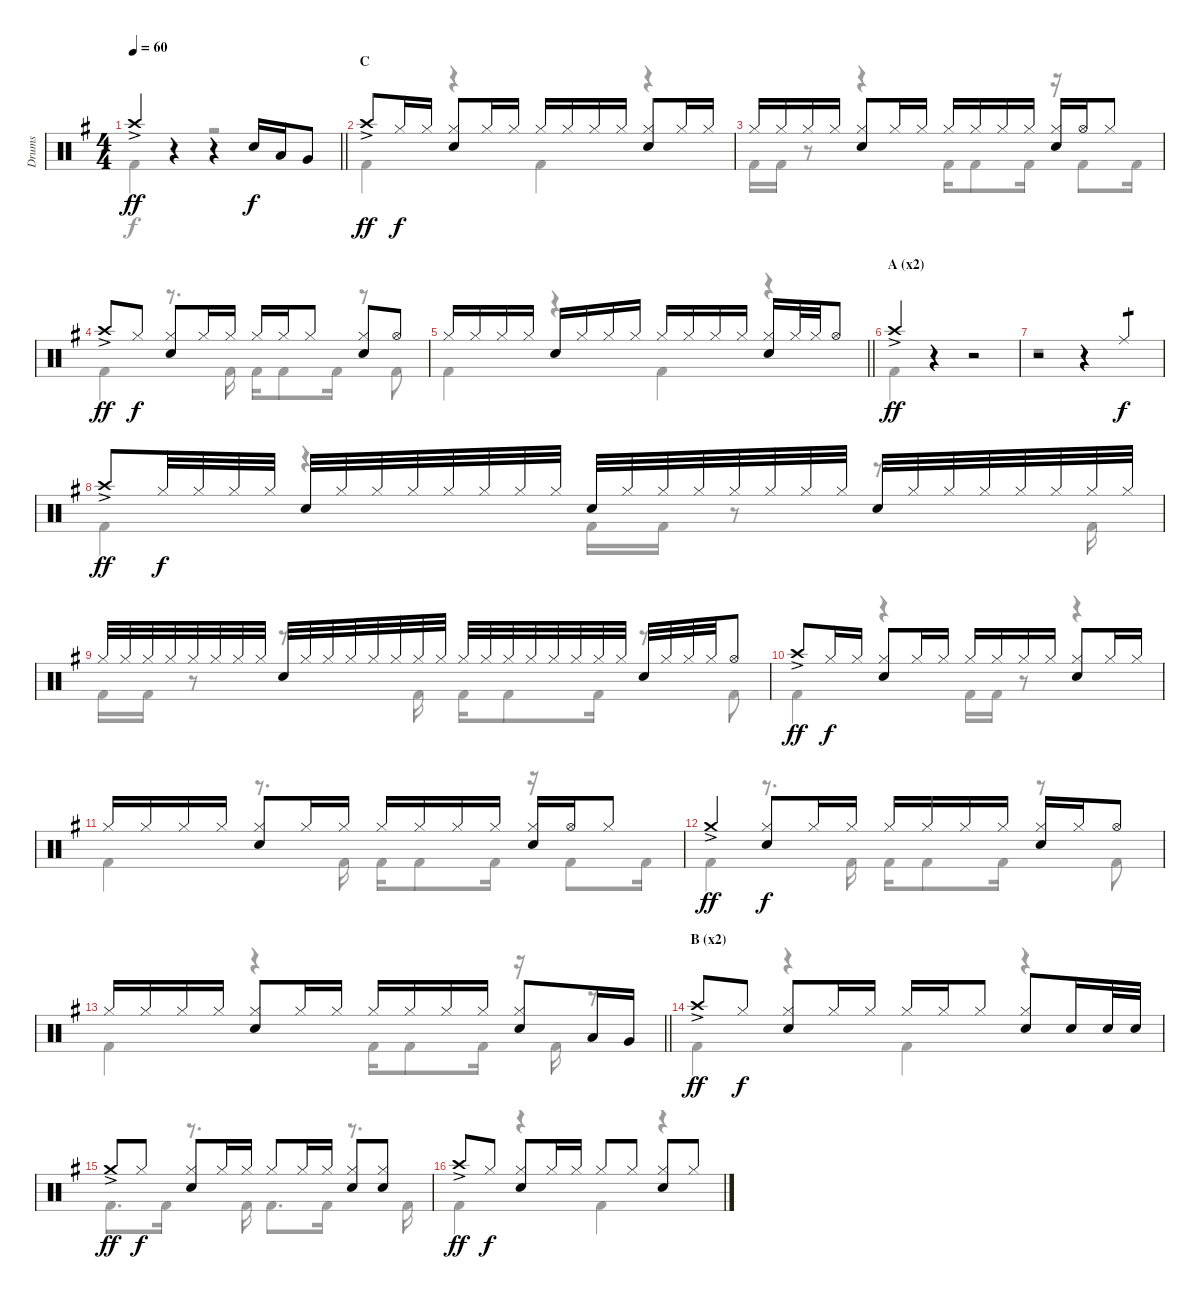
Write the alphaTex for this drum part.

\track ("Drums" "Drums") {instrument percussion}
\staff {score}
\articulation defaults
\voice
\ts (4 4)
\tempo 60
\clef neutral
\barLineRight lightlight
\ks g "Crash high (hit)"{ac}.4{dy ff}
r.4 r.4 "Snare (hit) 2".16{dy f} "Low Tom (hit)".16 "Very Low Tom (hit)".8 |
\section ("" "C")
"Crash high (hit)"{ac}.8{dy ff} "Hi-Hat (closed)".16{dy f} "Hi-Hat (closed)".16 ("Hi-Hat (closed)" "Snare (hit) 2").8 "Hi-Hat (closed)".16 "Hi-Hat (closed)".16 "Hi-Hat (closed)".16 "Hi-Hat (closed)".16 "Hi-Hat (closed)".16 "Hi-Hat (closed)".16 ("Hi-Hat (closed)" "Snare (hit) 2").8 "Hi-Hat (closed)".16 "Hi-Hat (closed)".16 |
"Hi-Hat (closed)".16 "Hi-Hat (closed)".16 "Hi-Hat (closed)".16 "Hi-Hat (closed)".16 ("Hi-Hat (closed)" "Snare (hit) 2").8 "Hi-Hat (closed)".16 "Hi-Hat (closed)".16 "Hi-Hat (closed)".16 "Hi-Hat (closed)".16 "Hi-Hat (closed)".16 "Hi-Hat (closed)".16 ("Hi-Hat (closed)" "Snare (hit) 2").16 "Hi-Hat (open)".16 "Hi-Hat (closed)".8 |
"Crash high (hit)"{ac}.8{dy ff} "Hi-Hat (closed)".8{dy f} ("Hi-Hat (closed)" "Snare (hit) 2").8 "Hi-Hat (closed)".16 "Hi-Hat (closed)".16 "Hi-Hat (closed)".16 "Hi-Hat (closed)".16 "Hi-Hat (closed)".8 ("Hi-Hat (closed)" "Snare (hit) 2").8 "Hi-Hat (open)".8 |
\barLineRight lightlight "Hi-Hat (closed)".16 "Hi-Hat (closed)".16 "Hi-Hat (closed)".16 "Hi-Hat (closed)".16 "Snare (hit) 2".16 "Hi-Hat (closed)".16 "Hi-Hat (closed)".16 "Hi-Hat (closed)".16 "Hi-Hat (closed)".16 "Hi-Hat (closed)".16 "Hi-Hat (closed)".16 "Hi-Hat (closed)".16
("Hi-Hat (closed)" "Snare (hit) 2").16 "Hi-Hat (closed)".32 "Hi-Hat (closed)".32 "Hi-Hat (open)".8 |
\section ("" "A (x2)")
"Crash high (hit)"{ac}.4{dy ff} r.4 r.2 |
r.2 r.4 "Ride (middle)".4{tp 1 dy f} |
"Crash high (hit)"{ac}.8{dy ff} "Hi-Hat (closed)".32{dy f} "Hi-Hat (closed)".32 "Hi-Hat (closed)".32 "Hi-Hat (closed)".32 "Snare (hit) 2".32 "Hi-Hat (closed)".32 "Hi-Hat (closed)".32 "Hi-Hat (closed)".32 "Hi-Hat (closed)".32 "Hi-Hat (closed)".32 "Hi-Hat (closed)".32 "Hi-Hat (closed)".32 "Snare (hit) 2".32 "Hi-Hat (closed)".32 "Hi-Hat (closed)".32 "Hi-Hat (closed)".32 "Hi-Hat (closed)".32 "Hi-Hat (closed)".32 "Hi-Hat (closed)".32 "Hi-Hat (closed)".32 "Snare (hit) 2".32 "Hi-Hat (closed)".32 "Hi-Hat (closed)".32 "Hi-Hat (closed)".32 "Hi-Hat (closed)".32 "Hi-Hat (closed)".32 "Hi-Hat (closed)".32 "Hi-Hat (closed)".32 |
"Hi-Hat (closed)".32 "Hi-Hat (closed)".32 "Hi-Hat (closed)".32 "Hi-Hat (closed)".32 "Hi-Hat (closed)".32 "Hi-Hat (closed)".32 "Hi-Hat (closed)".32 "Hi-Hat (closed)".32 "Snare (hit) 2".32 "Hi-Hat (closed)".32 "Hi-Hat (closed)".32 "Hi-Hat (closed)".32 "Hi-Hat (closed)".32 "Hi-Hat (closed)".32 "Hi-Hat (closed)".32 "Hi-Hat (closed)".32 "Hi-Hat (closed)".32 "Hi-Hat (closed)".32 "Hi-Hat (closed)".32 "Hi-Hat (closed)".32 "Hi-Hat (closed)".32 "Hi-Hat (closed)".32 "Hi-Hat (closed)".32 "Hi-Hat (closed)".32 "Snare (hit) 2".32 "Hi-Hat (closed)".32 "Hi-Hat (closed)".32 "Hi-Hat (closed)".32 "Hi-Hat (open)".8 |
"Crash high (hit)"{ac}.8{dy ff} "Hi-Hat (closed)".16{dy f} "Hi-Hat (closed)".16 ("Hi-Hat (closed)" "Snare (hit) 2").8 "Hi-Hat (closed)".16 "Hi-Hat (closed)".16 "Hi-Hat (closed)".16 "Hi-Hat (closed)".16 "Hi-Hat (closed)".16 "Hi-Hat (closed)".16 ("Hi-Hat (closed)" "Snare (hit) 2").8 "Hi-Hat (closed)".16 "Hi-Hat (closed)".16 |
"Hi-Hat (closed)".16 "Hi-Hat (closed)".16 "Hi-Hat (closed)".16 "Hi-Hat (closed)".16 ("Hi-Hat (closed)" "Snare (hit) 2").8 "Hi-Hat (closed)".16 "Hi-Hat (closed)".16 "Hi-Hat (closed)".16 "Hi-Hat (closed)".16 "Hi-Hat (closed)".16 "Hi-Hat (closed)".16 ("Hi-Hat (closed)" "Snare (hit) 2").16 "Hi-Hat (open)".16 "Hi-Hat (closed)".8 |
"Crash medium (hit)"{ac}.4{dy ff} ("Hi-Hat (closed)" "Snare (hit) 2").8{dy f} "Hi-Hat (closed)".16 "Hi-Hat (closed)".16 "Hi-Hat (closed)".16 "Hi-Hat (closed)".16 "Hi-Hat (closed)".16 "Hi-Hat (closed)".16 ("Hi-Hat (closed)" "Snare (hit) 2").16 "Hi-Hat (closed)".16 "Hi-Hat (open)".8 |
\barLineRight lightlight "Hi-Hat (closed)".16 "Hi-Hat (closed)".16 "Hi-Hat (closed)".16 "Hi-Hat (closed)".16
("Hi-Hat (closed)" "Snare (hit) 2").8 "Hi-Hat (closed)".16 "Hi-Hat (closed)".16 "Hi-Hat (closed)".16 "Hi-Hat (closed)".16 "Hi-Hat (closed)".16 "Hi-Hat (closed)".16 ("Hi-Hat (closed)" "Snare (hit) 2").8 "Low Tom (hit)".16 "Very Low Tom (hit)".16 |
\section ("" "B (x2)")
"Crash high (hit)"{ac}.8{dy ff} "Hi-Hat (closed)".8{dy f} ("Hi-Hat (closed)" "Snare (hit) 2").8 "Hi-Hat (closed)".16 "Hi-Hat (closed)".16 "Hi-Hat (closed)".16 "Hi-Hat (closed)".16 "Hi-Hat (closed)".8 ("Hi-Hat (closed)" "Snare (hit) 2").8 "Snare (hit) 2".16 "Snare (hit) 2".32 "Snare (hit) 2".32 |
"Crash medium (hit)"{ac}.8{dy ff} "Hi-Hat (closed)".8{dy f} ("Hi-Hat (closed)" "Snare (hit) 2").8 "Hi-Hat (closed)".16 "Hi-Hat (closed)".16 "Hi-Hat (closed)".8 "Hi-Hat (closed)".16 "Hi-Hat (closed)".16 ("Hi-Hat (closed)" "Snare (hit) 2").8 ("Hi-Hat (closed)" "Snare (hit) 2").8 |
"Crash high (hit)"{ac}.8{dy ff} "Hi-Hat (closed)".8{dy f} ("Hi-Hat (closed)" "Snare (hit) 2").8 "Hi-Hat (closed)".16 "Hi-Hat (closed)".16 "Hi-Hat (closed)".8 "Hi-Hat (closed)".8 ("Hi-Hat (closed)" "Snare (hit) 2").8 "Hi-Hat (closed)".8
\voice
\clef neutral
\ottava regular
\simile none
\barLineRight lightlight
\ks g "Kick (hit) 2".4{dy f}
r.4 r.2 |
"Kick (hit) 2".4 r.4 "Kick (hit) 2".4 r.4 |
"Kick (hit) 2".16 "Kick (hit) 2".16 r.8 r.4 "Kick (hit) 2".16 "Kick (hit) 2".8 "Kick (hit) 2".16 r.16 "Kick (hit) 2".8 "Kick (hit) 2".16 |
"Kick (hit) 2".4 r.8{d} "Kick (hit) 2".16 "Kick (hit) 2".16 "Kick (hit) 2".8 "Kick (hit) 2".16 r.8 "Kick (hit) 2".8 |
\barLineRight lightlight "Kick (hit) 2".4
r.4 "Kick (hit) 2".4 r.4 |
"Kick (hit) 2".4 r.4 r.2 |
r.1 |
"Kick (hit) 2".4 r.4 "Kick (hit) 2".16 "Kick (hit) 2".16 r.8 r.8{d} "Kick (hit) 2".16 |
"Kick (hit) 2".16 "Kick (hit) 2".16 r.8 r.8{d} "Kick (hit) 2".16 "Kick (hit) 2".16 "Kick (hit) 2".8 "Kick (hit) 2".16 r.8 "Kick (hit) 2".8 |
"Kick (hit) 2".4 r.4 "Kick (hit) 2".16 "Kick (hit) 2".16 r.8 r.4 |
"Kick (hit) 2".4 r.8{d} "Kick (hit) 2".16 "Kick (hit) 2".16 "Kick (hit) 2".8 "Kick (hit) 2".16 r.16 "Kick (hit) 2".8 "Kick (hit) 2".16 |
"Kick (hit) 2".4 r.8{d} "Kick (hit) 2".16 "Kick (hit) 2".16 "Kick (hit) 2".8 "Kick (hit) 2".16 r.8 "Kick (hit) 2".8 |
\barLineRight lightlight "Kick (hit) 2".4
r.4 "Kick (hit) 2".16 "Kick (hit) 2".8 "Kick (hit) 2".16 r.16 "Kick (hit) 2".16 r.8 |
"Kick (hit) 2".4 r.4 "Kick (hit) 2".4 r.4 |
"Kick (hit) 2".8{d} "Kick (hit) 2".16 r.8{d} "Kick (hit) 2".16 "Kick (hit) 2".8{d} "Kick (hit) 2".16 r.8{d} "Kick (hit) 2".16 |
"Kick (hit) 2".4 r.4 "Kick (hit) 2".4 r.4
